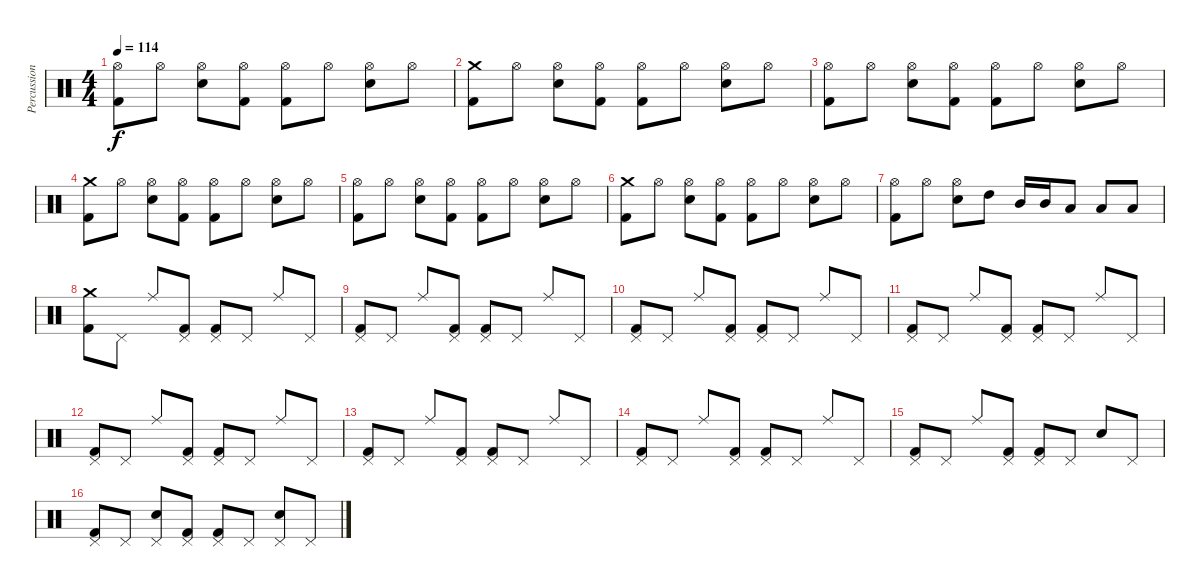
\track ("Percussion" "Percussion") {instrument percussion}
\staff {score}
\articulation defaults
\ts (4 4)
\tempo 114
\clef neutral
\ks c
("Hi-Hat (open)" "Kick (hit) 2").8{dy f} "Hi-Hat (open)".8 ("Hi-Hat (open)" "Electric Snare (hit)").8 ("Hi-Hat (open)" "Kick (hit) 2").8 ("Hi-Hat (open)" "Kick (hit) 2").8 "Hi-Hat (open)".8 ("Hi-Hat (open)" "Electric Snare (hit)").8 "Hi-Hat (open)".8 |
("Crash medium (hit)" "Kick (hit) 2").8 "Hi-Hat (open)".8 ("Hi-Hat (open)" "Electric Snare (hit)").8 ("Hi-Hat (open)" "Kick (hit) 2").8 ("Hi-Hat (open)" "Kick (hit) 2").8 "Hi-Hat (open)".8 ("Hi-Hat (open)" "Electric Snare (hit)").8 "Hi-Hat (open)".8 |
("Hi-Hat (open)" "Kick (hit) 2").8 "Hi-Hat (open)".8 ("Hi-Hat (open)" "Electric Snare (hit)").8 ("Hi-Hat (open)" "Kick (hit) 2").8 ("Hi-Hat (open)" "Kick (hit) 2").8 "Hi-Hat (open)".8 ("Hi-Hat (open)" "Electric Snare (hit)").8 "Hi-Hat (open)".8 |
("Crash medium (hit)" "Kick (hit) 2").8 "Hi-Hat (open)".8 ("Hi-Hat (open)" "Electric Snare (hit)").8 ("Hi-Hat (open)" "Kick (hit) 2").8 ("Hi-Hat (open)" "Kick (hit) 2").8 "Hi-Hat (open)".8 ("Hi-Hat (open)" "Electric Snare (hit)").8 "Hi-Hat (open)".8 |
("Hi-Hat (open)" "Kick (hit) 2").8 "Hi-Hat (open)".8 ("Hi-Hat (open)" "Electric Snare (hit)").8 ("Hi-Hat (open)" "Kick (hit) 2").8 ("Hi-Hat (open)" "Kick (hit) 2").8 "Hi-Hat (open)".8 ("Hi-Hat (open)" "Electric Snare (hit)").8 "Hi-Hat (open)".8 |
("Crash medium (hit)" "Kick (hit) 2").8 "Hi-Hat (open)".8 ("Hi-Hat (open)" "Electric Snare (hit)").8 ("Hi-Hat (open)" "Kick (hit) 2").8 ("Hi-Hat (open)" "Kick (hit) 2").8 "Hi-Hat (open)".8 ("Hi-Hat (open)" "Electric Snare (hit)").8 "Hi-Hat (open)".8 |
("Hi-Hat (open)" "Kick (hit) 2").8 "Hi-Hat (open)".8 ("Hi-Hat (open)" "Electric Snare (hit)").8 "High Tom (hit)".8 "Mid Tom (hit)".16 "Mid Tom (hit)".16 "Low Tom (hit)".8 "Low Tom (hit)".8 "Low Floor Tom (hit)".8 |
("Crash medium (hit)" "Kick (hit) 2").8 "Pedal Hi-Hat (hit)".8 "Ride (middle)".8 ("Pedal Hi-Hat (hit)" "Kick (hit) 2").8 ("Pedal Hi-Hat (hit)" "Kick (hit) 2").8 "Pedal Hi-Hat (hit)".8 "Ride (middle)".8 "Pedal Hi-Hat (hit)".8 |
("Pedal Hi-Hat (hit)" "Kick (hit) 2").8 "Pedal Hi-Hat (hit)".8 "Ride (middle)".8 ("Pedal Hi-Hat (hit)" "Kick (hit) 2").8 ("Pedal Hi-Hat (hit)" "Kick (hit) 2").8 "Pedal Hi-Hat (hit)".8 "Ride (middle)".8 "Pedal Hi-Hat (hit)".8 |
("Pedal Hi-Hat (hit)" "Kick (hit) 2").8 "Pedal Hi-Hat (hit)".8 "Ride (middle)".8 ("Pedal Hi-Hat (hit)" "Kick (hit) 2").8 ("Pedal Hi-Hat (hit)" "Kick (hit) 2").8 "Pedal Hi-Hat (hit)".8 "Ride (middle)".8 "Pedal Hi-Hat (hit)".8 |
("Pedal Hi-Hat (hit)" "Kick (hit) 2").8 "Pedal Hi-Hat (hit)".8 "Ride (middle)".8 ("Pedal Hi-Hat (hit)" "Kick (hit) 2").8 ("Pedal Hi-Hat (hit)" "Kick (hit) 2").8 "Pedal Hi-Hat (hit)".8 "Ride (middle)".8 "Pedal Hi-Hat (hit)".8 |
("Pedal Hi-Hat (hit)" "Kick (hit) 2").8 "Pedal Hi-Hat (hit)".8 "Ride (middle)".8 ("Pedal Hi-Hat (hit)" "Kick (hit) 2").8 ("Pedal Hi-Hat (hit)" "Kick (hit) 2").8 "Pedal Hi-Hat (hit)".8 "Ride (middle)".8 "Pedal Hi-Hat (hit)".8 |
("Pedal Hi-Hat (hit)" "Kick (hit) 2").8 "Pedal Hi-Hat (hit)".8 "Ride (middle)".8 ("Pedal Hi-Hat (hit)" "Kick (hit) 2").8 ("Pedal Hi-Hat (hit)" "Kick (hit) 2").8 "Pedal Hi-Hat (hit)".8 "Ride (middle)".8 "Pedal Hi-Hat (hit)".8 |
("Pedal Hi-Hat (hit)" "Kick (hit) 2").8 "Pedal Hi-Hat (hit)".8 "Ride (middle)".8 ("Pedal Hi-Hat (hit)" "Kick (hit) 2").8 ("Pedal Hi-Hat (hit)" "Kick (hit) 2").8 "Pedal Hi-Hat (hit)".8 "Ride (middle)".8 "Pedal Hi-Hat (hit)".8 |
("Pedal Hi-Hat (hit)" "Kick (hit) 2").8 "Pedal Hi-Hat (hit)".8 "Ride (middle)".8 ("Pedal Hi-Hat (hit)" "Kick (hit) 2").8 ("Pedal Hi-Hat (hit)" "Kick (hit) 2").8 "Pedal Hi-Hat (hit)".8 "Electric Snare (hit)".8 "Pedal Hi-Hat (hit)".8 |
("Pedal Hi-Hat (hit)" "Kick (hit) 2").8 "Pedal Hi-Hat (hit)".8 ("Pedal Hi-Hat (hit)" "Electric Snare (hit)").8 ("Pedal Hi-Hat (hit)" "Kick (hit) 2").8 ("Pedal Hi-Hat (hit)" "Kick (hit) 2").8 "Pedal Hi-Hat (hit)".8 ("Pedal Hi-Hat (hit)" "Electric Snare (hit)").8 "Pedal Hi-Hat (hit)".8
